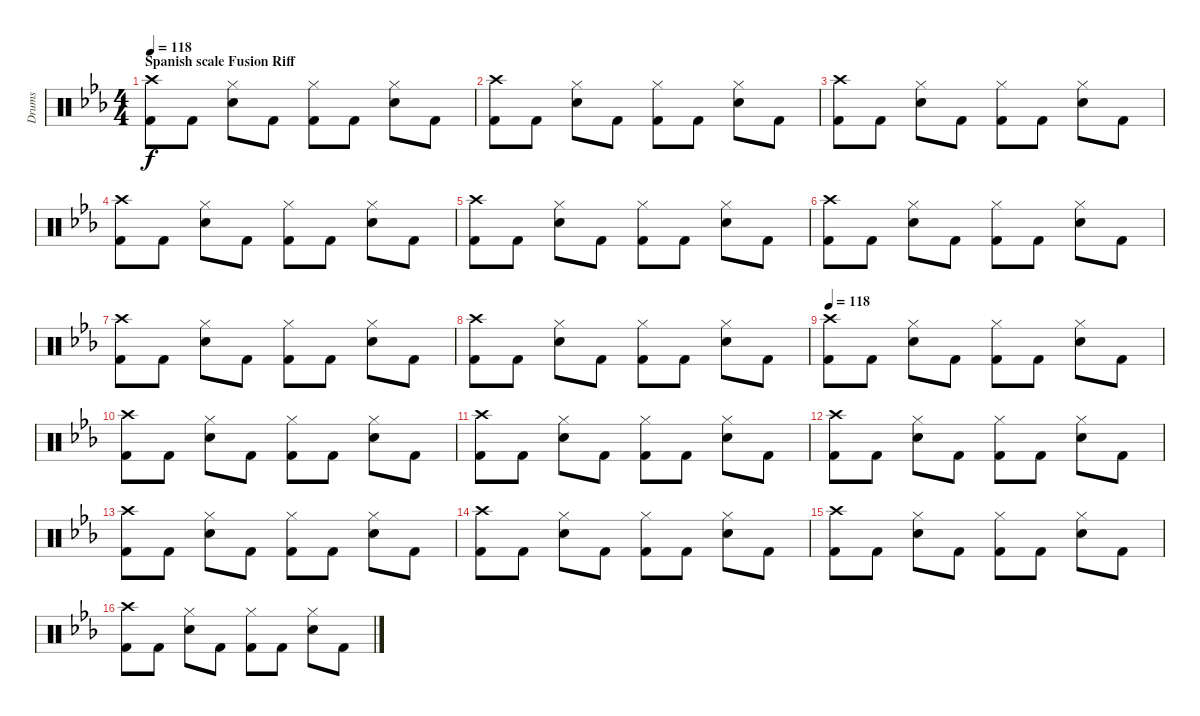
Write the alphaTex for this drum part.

\track ("Drums" "Drums") {instrument percussion}
\staff {score}
\articulation defaults
\ts (4 4)
\section ("" "Spanish scale Fusion Riff")
\tempo 118
\clef neutral
\ks eb
("Crash high (hit)" "Kick (hit) 2").8{dy f} "Kick (hit) 2".8 ("Hi-Hat (closed)" "Electric Snare (hit)").8 "Kick (hit) 2".8 ("Hi-Hat (closed)" "Kick (hit) 2").8 "Kick (hit) 2".8 ("Hi-Hat (closed)" "Electric Snare (hit)").8 "Kick (hit) 2".8 |
("Crash high (hit)" "Kick (hit) 2").8 "Kick (hit) 2".8 ("Hi-Hat (closed)" "Electric Snare (hit)").8 "Kick (hit) 2".8 ("Hi-Hat (closed)" "Kick (hit) 2").8 "Kick (hit) 2".8 ("Hi-Hat (closed)" "Electric Snare (hit)").8 "Kick (hit) 2".8 |
("Crash high (hit)" "Kick (hit) 2").8 "Kick (hit) 2".8 ("Hi-Hat (closed)" "Electric Snare (hit)").8 "Kick (hit) 2".8 ("Hi-Hat (closed)" "Kick (hit) 2").8 "Kick (hit) 2".8 ("Hi-Hat (closed)" "Electric Snare (hit)").8 "Kick (hit) 2".8 |
("Crash high (hit)" "Kick (hit) 2").8 "Kick (hit) 2".8 ("Hi-Hat (closed)" "Electric Snare (hit)").8 "Kick (hit) 2".8 ("Hi-Hat (closed)" "Kick (hit) 2").8 "Kick (hit) 2".8 ("Hi-Hat (closed)" "Electric Snare (hit)").8 "Kick (hit) 2".8 |
("Crash high (hit)" "Kick (hit) 2").8 "Kick (hit) 2".8 ("Hi-Hat (closed)" "Electric Snare (hit)").8 "Kick (hit) 2".8 ("Hi-Hat (closed)" "Kick (hit) 2").8 "Kick (hit) 2".8 ("Hi-Hat (closed)" "Electric Snare (hit)").8 "Kick (hit) 2".8 |
("Crash high (hit)" "Kick (hit) 2").8 "Kick (hit) 2".8 ("Hi-Hat (closed)" "Electric Snare (hit)").8 "Kick (hit) 2".8 ("Hi-Hat (closed)" "Kick (hit) 2").8 "Kick (hit) 2".8 ("Hi-Hat (closed)" "Electric Snare (hit)").8 "Kick (hit) 2".8 |
("Crash high (hit)" "Kick (hit) 2").8 "Kick (hit) 2".8 ("Hi-Hat (closed)" "Electric Snare (hit)").8 "Kick (hit) 2".8 ("Hi-Hat (closed)" "Kick (hit) 2").8 "Kick (hit) 2".8 ("Hi-Hat (closed)" "Electric Snare (hit)").8 "Kick (hit) 2".8 |
("Crash high (hit)" "Kick (hit) 2").8 "Kick (hit) 2".8 ("Hi-Hat (closed)" "Electric Snare (hit)").8 "Kick (hit) 2".8 ("Hi-Hat (closed)" "Kick (hit) 2").8 "Kick (hit) 2".8 ("Hi-Hat (closed)" "Electric Snare (hit)").8 "Kick (hit) 2".8 |
\tempo 118
("Crash high (hit)" "Kick (hit) 2").8 "Kick (hit) 2".8 ("Hi-Hat (closed)" "Electric Snare (hit)").8 "Kick (hit) 2".8 ("Hi-Hat (closed)" "Kick (hit) 2").8 "Kick (hit) 2".8 ("Hi-Hat (closed)" "Electric Snare (hit)").8 "Kick (hit) 2".8 |
("Crash high (hit)" "Kick (hit) 2").8 "Kick (hit) 2".8 ("Hi-Hat (closed)" "Electric Snare (hit)").8 "Kick (hit) 2".8 ("Hi-Hat (closed)" "Kick (hit) 2").8 "Kick (hit) 2".8 ("Hi-Hat (closed)" "Electric Snare (hit)").8 "Kick (hit) 2".8 |
("Crash high (hit)" "Kick (hit) 2").8 "Kick (hit) 2".8 ("Hi-Hat (closed)" "Electric Snare (hit)").8 "Kick (hit) 2".8 ("Hi-Hat (closed)" "Kick (hit) 2").8 "Kick (hit) 2".8 ("Hi-Hat (closed)" "Electric Snare (hit)").8 "Kick (hit) 2".8 |
("Crash high (hit)" "Kick (hit) 2").8 "Kick (hit) 2".8 ("Hi-Hat (closed)" "Electric Snare (hit)").8 "Kick (hit) 2".8 ("Hi-Hat (closed)" "Kick (hit) 2").8 "Kick (hit) 2".8 ("Hi-Hat (closed)" "Electric Snare (hit)").8 "Kick (hit) 2".8 |
("Crash high (hit)" "Kick (hit) 2").8 "Kick (hit) 2".8 ("Hi-Hat (closed)" "Electric Snare (hit)").8 "Kick (hit) 2".8 ("Hi-Hat (closed)" "Kick (hit) 2").8 "Kick (hit) 2".8 ("Hi-Hat (closed)" "Electric Snare (hit)").8 "Kick (hit) 2".8 |
("Crash high (hit)" "Kick (hit) 2").8 "Kick (hit) 2".8 ("Hi-Hat (closed)" "Electric Snare (hit)").8 "Kick (hit) 2".8 ("Hi-Hat (closed)" "Kick (hit) 2").8 "Kick (hit) 2".8 ("Hi-Hat (closed)" "Electric Snare (hit)").8 "Kick (hit) 2".8 |
("Crash high (hit)" "Kick (hit) 2").8 "Kick (hit) 2".8 ("Hi-Hat (closed)" "Electric Snare (hit)").8 "Kick (hit) 2".8 ("Hi-Hat (closed)" "Kick (hit) 2").8 "Kick (hit) 2".8 ("Hi-Hat (closed)" "Electric Snare (hit)").8 "Kick (hit) 2".8 |
("Crash high (hit)" "Kick (hit) 2").8 "Kick (hit) 2".8 ("Hi-Hat (closed)" "Electric Snare (hit)").8 "Kick (hit) 2".8 ("Hi-Hat (closed)" "Kick (hit) 2").8 "Kick (hit) 2".8 ("Hi-Hat (closed)" "Electric Snare (hit)").8 "Kick (hit) 2".8
